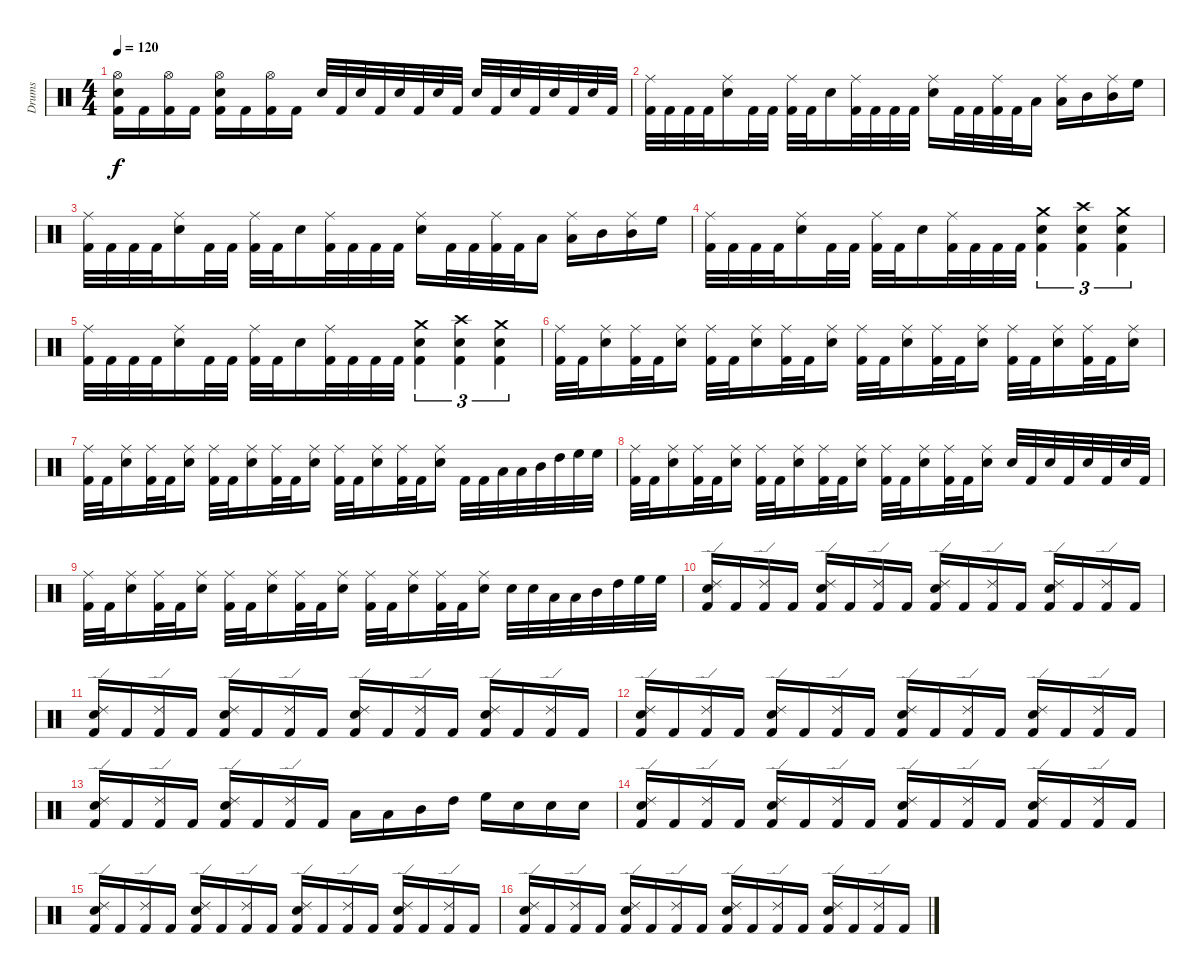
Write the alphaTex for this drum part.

\track ("Drums" "Drums") {instrument percussion}
\staff {score}
\articulation defaults
\ts (4 4)
\tempo 120
\clef neutral
\ks c
("Kick (hit) 2" "Snare (hit) 2" "Hi-Hat (open)").16{dy f} "Kick (hit) 2".16 ("Kick (hit) 2" "Hi-Hat (open)").16 "Kick (hit) 2".16 ("Kick (hit) 2" "Snare (hit) 2" "Hi-Hat (open)").16 "Kick (hit) 2".16 ("Kick (hit) 2" "Hi-Hat (open)").16 "Kick (hit) 2".16 "Snare (hit) 2".32 "Kick (hit) 2".32 "Snare (hit) 2".32 "Kick (hit) 2".32 "Snare (hit) 2".32 "Kick (hit) 2".32 "Snare (hit) 2".32 "Kick (hit) 2".32 "Snare (hit) 2".32 "Kick (hit) 2".32 "Snare (hit) 2".32 "Kick (hit) 2".32 "Snare (hit) 2".32 "Kick (hit) 2".32 "Snare (hit) 2".32 "Kick (hit) 2".32 |
("Kick (hit) 2" "Ride (middle)").32 "Kick (hit) 2".32 "Kick (hit) 2".32 "Kick (hit) 2".32 ("Snare (hit) 2" "Ride (middle)").16 "Kick (hit) 2".32 "Kick (hit) 2".32 ("Kick (hit) 2" "Ride (middle)").32 "Kick (hit) 2".32 "Snare (hit) 2".16 ("Kick (hit) 2" "Ride (middle)").32 "Kick (hit) 2".32 "Kick (hit) 2".32 "Kick (hit) 2".32 ("Snare (hit) 2" "Ride (middle)").16 "Kick (hit) 2".32 "Kick (hit) 2".32 ("Kick (hit) 2" "Ride (middle)").32 "Kick (hit) 2".32 "Low Tom (hit)".16 ("Low Tom (hit)" "Ride (middle)").16 "Mid Tom (hit)".16 ("Mid Tom (hit)" "Ride (middle)").16 "High Floor Tom (hit)".16 |
("Kick (hit) 2" "Ride (middle)").32 "Kick (hit) 2".32 "Kick (hit) 2".32 "Kick (hit) 2".32 ("Snare (hit) 2" "Ride (middle)").16 "Kick (hit) 2".32 "Kick (hit) 2".32 ("Kick (hit) 2" "Ride (middle)").32 "Kick (hit) 2".32 "Snare (hit) 2".16 ("Kick (hit) 2" "Ride (middle)").32 "Kick (hit) 2".32 "Kick (hit) 2".32 "Kick (hit) 2".32 ("Snare (hit) 2" "Ride (middle)").16 "Kick (hit) 2".32 "Kick (hit) 2".32 ("Kick (hit) 2" "Ride (middle)").32 "Kick (hit) 2".32 "Low Tom (hit)".16 ("Low Tom (hit)" "Ride (middle)").16 "Mid Tom (hit)".16 ("Mid Tom (hit)" "Ride (middle)").16 "High Floor Tom (hit)".16 |
("Kick (hit) 2" "Ride (middle)").32 "Kick (hit) 2".32 "Kick (hit) 2".32 "Kick (hit) 2".32 ("Snare (hit) 2" "Ride (middle)").16 "Kick (hit) 2".32 "Kick (hit) 2".32 ("Kick (hit) 2" "Ride (middle)").32 "Kick (hit) 2".32 "Snare (hit) 2".16 ("Kick (hit) 2" "Ride (middle)").32 "Kick (hit) 2".32 "Kick (hit) 2".32 "Kick (hit) 2".32 ("Kick (hit) 2" "Snare (hit) 2" "Crash medium (hit)").4{tu (3 2)} ("Kick (hit) 2" "Snare (hit) 2" "Crash high (hit)").4{tu (3 2)} ("Kick (hit) 2" "Snare (hit) 2" "Crash medium (hit)").4{tu (3 2)} |
("Kick (hit) 2" "Ride (middle)").32 "Kick (hit) 2".32 "Kick (hit) 2".32 "Kick (hit) 2".32 ("Snare (hit) 2" "Ride (middle)").16 "Kick (hit) 2".32 "Kick (hit) 2".32 ("Kick (hit) 2" "Ride (middle)").32 "Kick (hit) 2".32 "Snare (hit) 2".16 ("Kick (hit) 2" "Ride (middle)").32 "Kick (hit) 2".32 "Kick (hit) 2".32 "Kick (hit) 2".32 ("Kick (hit) 2" "Snare (hit) 2" "Crash medium (hit)").4{tu (3 2)} ("Kick (hit) 2" "Snare (hit) 2" "Crash high (hit)").4{tu (3 2)} ("Kick (hit) 2" "Snare (hit) 2" "Crash medium (hit)").4{tu (3 2)} |
("Kick (hit) 2" "Ride (middle)").32 "Kick (hit) 2".32 ("Snare (hit) 2" "Ride (middle)").16 ("Kick (hit) 2" "Ride (middle)").32 "Kick (hit) 2".32 ("Snare (hit) 2" "Ride (middle)").16 ("Kick (hit) 2" "Ride (middle)").32 "Kick (hit) 2".32 ("Snare (hit) 2" "Ride (middle)").16 ("Kick (hit) 2" "Ride (middle)").32 "Kick (hit) 2".32 ("Snare (hit) 2" "Ride (middle)").16 ("Kick (hit) 2" "Ride (middle)").32 "Kick (hit) 2".32 ("Snare (hit) 2" "Ride (middle)").16 ("Kick (hit) 2" "Ride (middle)").32 "Kick (hit) 2".32 ("Snare (hit) 2" "Ride (middle)").16 ("Kick (hit) 2" "Ride (middle)").32 "Kick (hit) 2".32 ("Snare (hit) 2" "Ride (middle)").16 ("Kick (hit) 2" "Ride (middle)").32 "Kick (hit) 2".32 ("Snare (hit) 2" "Ride (middle)").16 |
("Kick (hit) 2" "Ride (middle)").32 "Kick (hit) 2".32 ("Snare (hit) 2" "Ride (middle)").16 ("Kick (hit) 2" "Ride (middle)").32 "Kick (hit) 2".32 ("Snare (hit) 2" "Ride (middle)").16 ("Kick (hit) 2" "Ride (middle)").32 "Kick (hit) 2".32 ("Snare (hit) 2" "Ride (middle)").16 ("Kick (hit) 2" "Ride (middle)").32 "Kick (hit) 2".32 ("Snare (hit) 2" "Ride (middle)").16 ("Kick (hit) 2" "Ride (middle)").32 "Kick (hit) 2".32 ("Snare (hit) 2" "Ride (middle)").16 ("Kick (hit) 2" "Ride (middle)").32 "Kick (hit) 2".32 ("Snare (hit) 2" "Ride (middle)").16 "Kick (hit) 2".32 "Kick (hit) 2".32 "Low Tom (hit)".32 "Low Tom (hit)".32 "Mid Tom (hit)".32 "High Tom (hit)".32 "High Floor Tom (hit)".32 "High Floor Tom (hit)".32 |
("Kick (hit) 2" "Ride (middle)").32 "Kick (hit) 2".32 ("Snare (hit) 2" "Ride (middle)").16 ("Kick (hit) 2" "Ride (middle)").32 "Kick (hit) 2".32 ("Snare (hit) 2" "Ride (middle)").16 ("Kick (hit) 2" "Ride (middle)").32 "Kick (hit) 2".32 ("Snare (hit) 2" "Ride (middle)").16 ("Kick (hit) 2" "Ride (middle)").32 "Kick (hit) 2".32 ("Snare (hit) 2" "Ride (middle)").16 ("Kick (hit) 2" "Ride (middle)").32 "Kick (hit) 2".32 ("Snare (hit) 2" "Ride (middle)").16 ("Kick (hit) 2" "Ride (middle)").32 "Kick (hit) 2".32 ("Snare (hit) 2" "Ride (middle)").16 "Snare (hit) 2".32 "Kick (hit) 2".32 "Snare (hit) 2".32 "Kick (hit) 2".32 "Snare (hit) 2".32 "Kick (hit) 2".32 "Snare (hit) 2".32 "Kick (hit) 2".32 |
("Kick (hit) 2" "Ride (middle)").32 "Kick (hit) 2".32 ("Snare (hit) 2" "Ride (middle)").16 ("Kick (hit) 2" "Ride (middle)").32 "Kick (hit) 2".32 ("Snare (hit) 2" "Ride (middle)").16 ("Kick (hit) 2" "Ride (middle)").32 "Kick (hit) 2".32 ("Snare (hit) 2" "Ride (middle)").16 ("Kick (hit) 2" "Ride (middle)").32 "Kick (hit) 2".32 ("Snare (hit) 2" "Ride (middle)").16 ("Kick (hit) 2" "Ride (middle)").32 "Kick (hit) 2".32 ("Snare (hit) 2" "Ride (middle)").16 ("Kick (hit) 2" "Ride (middle)").32 "Kick (hit) 2".32 ("Snare (hit) 2" "Ride (middle)").16 "Snare (hit) 2".32 "Snare (hit) 2".32 "Low Tom (hit)".32 "Low Tom (hit)".32 "Mid Tom (hit)".32 "High Tom (hit)".32 "High Floor Tom (hit)".32 "High Floor Tom (hit)".32 |
("Kick (hit) 2" "Snare (hit) 2" "Ride (edge) 2").16 "Kick (hit) 2".16 ("Kick (hit) 2" "Ride (edge) 2").16 "Kick (hit) 2".16 ("Kick (hit) 2" "Snare (hit) 2" "Ride (edge) 2").16 "Kick (hit) 2".16 ("Kick (hit) 2" "Ride (edge) 2").16 "Kick (hit) 2".16 ("Kick (hit) 2" "Snare (hit) 2" "Ride (edge) 2").16 "Kick (hit) 2".16 ("Kick (hit) 2" "Ride (edge) 2").16 "Kick (hit) 2".16 ("Kick (hit) 2" "Snare (hit) 2" "Ride (edge) 2").16 "Kick (hit) 2".16 ("Kick (hit) 2" "Ride (edge) 2").16 "Kick (hit) 2".16 |
("Kick (hit) 2" "Snare (hit) 2" "Ride (edge) 2").16 "Kick (hit) 2".16 ("Kick (hit) 2" "Ride (edge) 2").16 "Kick (hit) 2".16 ("Kick (hit) 2" "Snare (hit) 2" "Ride (edge) 2").16 "Kick (hit) 2".16 ("Kick (hit) 2" "Ride (edge) 2").16 "Kick (hit) 2".16 ("Kick (hit) 2" "Snare (hit) 2" "Ride (edge) 2").16 "Kick (hit) 2".16 ("Kick (hit) 2" "Ride (edge) 2").16 "Kick (hit) 2".16 ("Kick (hit) 2" "Snare (hit) 2" "Ride (edge) 2").16 "Kick (hit) 2".16 ("Kick (hit) 2" "Ride (edge) 2").16 "Kick (hit) 2".16 |
("Kick (hit) 2" "Snare (hit) 2" "Ride (edge) 2").16 "Kick (hit) 2".16 ("Kick (hit) 2" "Ride (edge) 2").16 "Kick (hit) 2".16 ("Kick (hit) 2" "Snare (hit) 2" "Ride (edge) 2").16 "Kick (hit) 2".16 ("Kick (hit) 2" "Ride (edge) 2").16 "Kick (hit) 2".16 ("Kick (hit) 2" "Snare (hit) 2" "Ride (edge) 2").16 "Kick (hit) 2".16 ("Kick (hit) 2" "Ride (edge) 2").16 "Kick (hit) 2".16 ("Kick (hit) 2" "Snare (hit) 2" "Ride (edge) 2").16 "Kick (hit) 2".16 ("Kick (hit) 2" "Ride (edge) 2").16 "Kick (hit) 2".16 |
("Kick (hit) 2" "Snare (hit) 2" "Ride (edge) 2").16 "Kick (hit) 2".16 ("Kick (hit) 2" "Ride (edge) 2").16 "Kick (hit) 2".16 ("Kick (hit) 2" "Snare (hit) 2" "Ride (edge) 2").16 "Kick (hit) 2".16 ("Kick (hit) 2" "Ride (edge) 2").16 "Kick (hit) 2".16 "Low Tom (hit)".16 "Low Tom (hit)".16 "Mid Tom (hit)".16 "High Tom (hit)".16 "High Floor Tom (hit)".16 "Snare (hit) 2".16 "Snare (hit) 2".16 "Snare (hit) 2".16 |
("Kick (hit) 2" "Snare (hit) 2" "Ride (edge) 2").16 "Kick (hit) 2".16 ("Kick (hit) 2" "Ride (edge) 2").16 "Kick (hit) 2".16 ("Kick (hit) 2" "Snare (hit) 2" "Ride (edge) 2").16 "Kick (hit) 2".16 ("Kick (hit) 2" "Ride (edge) 2").16 "Kick (hit) 2".16 ("Kick (hit) 2" "Snare (hit) 2" "Ride (edge) 2").16 "Kick (hit) 2".16 ("Kick (hit) 2" "Ride (edge) 2").16 "Kick (hit) 2".16 ("Kick (hit) 2" "Snare (hit) 2" "Ride (edge) 2").16 "Kick (hit) 2".16 ("Kick (hit) 2" "Ride (edge) 2").16 "Kick (hit) 2".16 |
("Kick (hit) 2" "Snare (hit) 2" "Ride (edge) 2").16 "Kick (hit) 2".16 ("Kick (hit) 2" "Ride (edge) 2").16 "Kick (hit) 2".16 ("Kick (hit) 2" "Snare (hit) 2" "Ride (edge) 2").16 "Kick (hit) 2".16 ("Kick (hit) 2" "Ride (edge) 2").16 "Kick (hit) 2".16 ("Kick (hit) 2" "Snare (hit) 2" "Ride (edge) 2").16 "Kick (hit) 2".16 ("Kick (hit) 2" "Ride (edge) 2").16 "Kick (hit) 2".16 ("Kick (hit) 2" "Snare (hit) 2" "Ride (edge) 2").16 "Kick (hit) 2".16 ("Kick (hit) 2" "Ride (edge) 2").16 "Kick (hit) 2".16 |
("Kick (hit) 2" "Snare (hit) 2" "Ride (edge) 2").16 "Kick (hit) 2".16 ("Kick (hit) 2" "Ride (edge) 2").16 "Kick (hit) 2".16 ("Kick (hit) 2" "Snare (hit) 2" "Ride (edge) 2").16 "Kick (hit) 2".16 ("Kick (hit) 2" "Ride (edge) 2").16 "Kick (hit) 2".16 ("Kick (hit) 2" "Snare (hit) 2" "Ride (edge) 2").16 "Kick (hit) 2".16 ("Kick (hit) 2" "Ride (edge) 2").16 "Kick (hit) 2".16 ("Kick (hit) 2" "Snare (hit) 2" "Ride (edge) 2").16 "Kick (hit) 2".16 ("Kick (hit) 2" "Ride (edge) 2").16 "Kick (hit) 2".16
